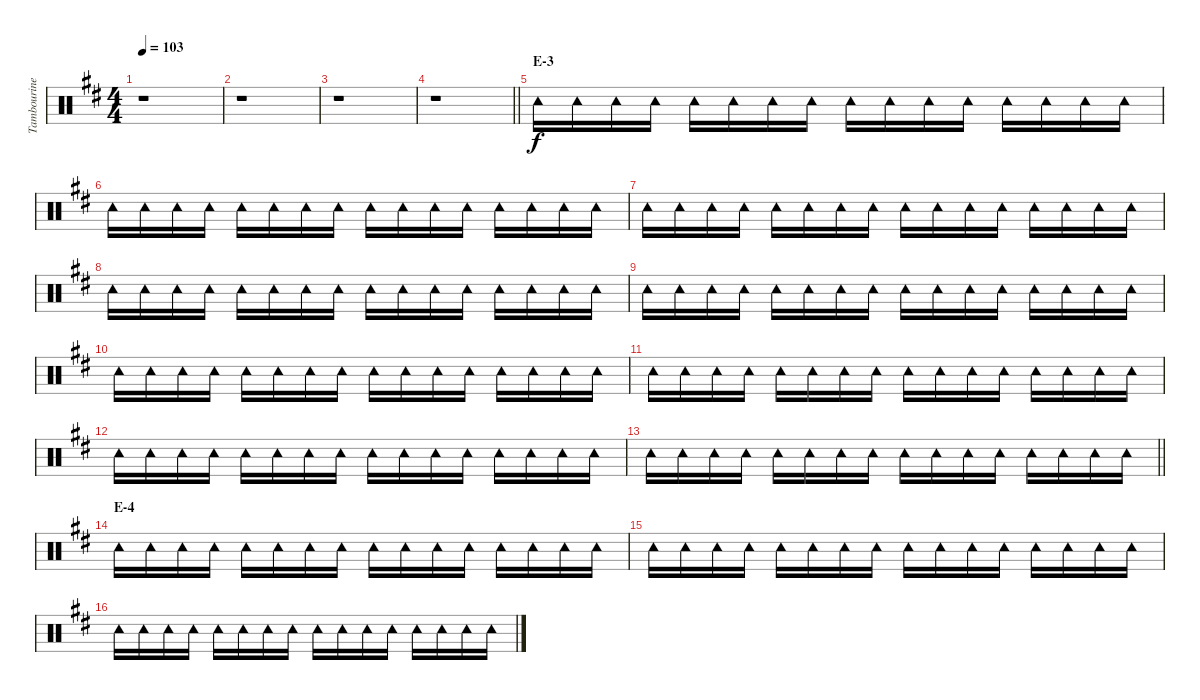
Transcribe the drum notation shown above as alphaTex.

\track ("Tambourine" "Tambourine") {instrument percussion}
\staff {score}
\articulation defaults
\ts (4 4)
\tempo 103
\clef neutral
\ks d
r.1{dy f} |
r.1 |
r.1 |
\barLineRight lightlight
r.1 |
\section ("" "E-3")
"Tambourine (hit)".16 "Tambourine (hit)".16 "Tambourine (hit)".16 "Tambourine (hit)".16 "Tambourine (hit)".16 "Tambourine (hit)".16 "Tambourine (hit)".16 "Tambourine (hit)".16 "Tambourine (hit)".16 "Tambourine (hit)".16 "Tambourine (hit)".16 "Tambourine (hit)".16 "Tambourine (hit)".16 "Tambourine (hit)".16 "Tambourine (hit)".16 "Tambourine (hit)".16 |
"Tambourine (hit)".16 "Tambourine (hit)".16 "Tambourine (hit)".16 "Tambourine (hit)".16 "Tambourine (hit)".16 "Tambourine (hit)".16 "Tambourine (hit)".16 "Tambourine (hit)".16 "Tambourine (hit)".16 "Tambourine (hit)".16 "Tambourine (hit)".16 "Tambourine (hit)".16 "Tambourine (hit)".16 "Tambourine (hit)".16 "Tambourine (hit)".16 "Tambourine (hit)".16 |
"Tambourine (hit)".16 "Tambourine (hit)".16 "Tambourine (hit)".16 "Tambourine (hit)".16 "Tambourine (hit)".16 "Tambourine (hit)".16 "Tambourine (hit)".16 "Tambourine (hit)".16 "Tambourine (hit)".16 "Tambourine (hit)".16 "Tambourine (hit)".16 "Tambourine (hit)".16 "Tambourine (hit)".16 "Tambourine (hit)".16 "Tambourine (hit)".16 "Tambourine (hit)".16 |
"Tambourine (hit)".16 "Tambourine (hit)".16 "Tambourine (hit)".16 "Tambourine (hit)".16 "Tambourine (hit)".16 "Tambourine (hit)".16 "Tambourine (hit)".16 "Tambourine (hit)".16 "Tambourine (hit)".16 "Tambourine (hit)".16 "Tambourine (hit)".16 "Tambourine (hit)".16 "Tambourine (hit)".16 "Tambourine (hit)".16 "Tambourine (hit)".16 "Tambourine (hit)".16 |
"Tambourine (hit)".16 "Tambourine (hit)".16 "Tambourine (hit)".16 "Tambourine (hit)".16 "Tambourine (hit)".16 "Tambourine (hit)".16 "Tambourine (hit)".16 "Tambourine (hit)".16 "Tambourine (hit)".16 "Tambourine (hit)".16 "Tambourine (hit)".16 "Tambourine (hit)".16 "Tambourine (hit)".16 "Tambourine (hit)".16 "Tambourine (hit)".16 "Tambourine (hit)".16 |
"Tambourine (hit)".16 "Tambourine (hit)".16 "Tambourine (hit)".16 "Tambourine (hit)".16 "Tambourine (hit)".16 "Tambourine (hit)".16 "Tambourine (hit)".16 "Tambourine (hit)".16 "Tambourine (hit)".16 "Tambourine (hit)".16 "Tambourine (hit)".16 "Tambourine (hit)".16 "Tambourine (hit)".16 "Tambourine (hit)".16 "Tambourine (hit)".16 "Tambourine (hit)".16 |
"Tambourine (hit)".16 "Tambourine (hit)".16 "Tambourine (hit)".16 "Tambourine (hit)".16 "Tambourine (hit)".16 "Tambourine (hit)".16 "Tambourine (hit)".16 "Tambourine (hit)".16 "Tambourine (hit)".16 "Tambourine (hit)".16 "Tambourine (hit)".16 "Tambourine (hit)".16 "Tambourine (hit)".16 "Tambourine (hit)".16 "Tambourine (hit)".16 "Tambourine (hit)".16 |
"Tambourine (hit)".16 "Tambourine (hit)".16 "Tambourine (hit)".16 "Tambourine (hit)".16 "Tambourine (hit)".16 "Tambourine (hit)".16 "Tambourine (hit)".16 "Tambourine (hit)".16 "Tambourine (hit)".16 "Tambourine (hit)".16 "Tambourine (hit)".16 "Tambourine (hit)".16 "Tambourine (hit)".16 "Tambourine (hit)".16 "Tambourine (hit)".16 "Tambourine (hit)".16 |
\barLineRight lightlight "Tambourine (hit)".16 "Tambourine (hit)".16 "Tambourine (hit)".16 "Tambourine (hit)".16 "Tambourine (hit)".16 "Tambourine (hit)".16 "Tambourine (hit)".16 "Tambourine (hit)".16 "Tambourine (hit)".16 "Tambourine (hit)".16 "Tambourine (hit)".16 "Tambourine (hit)".16 "Tambourine (hit)".16 "Tambourine (hit)".16 "Tambourine (hit)".16 "Tambourine (hit)".16
|
\section ("" "E-4")
"Tambourine (hit)".16 "Tambourine (hit)".16 "Tambourine (hit)".16 "Tambourine (hit)".16 "Tambourine (hit)".16 "Tambourine (hit)".16 "Tambourine (hit)".16 "Tambourine (hit)".16 "Tambourine (hit)".16 "Tambourine (hit)".16 "Tambourine (hit)".16 "Tambourine (hit)".16 "Tambourine (hit)".16 "Tambourine (hit)".16 "Tambourine (hit)".16 "Tambourine (hit)".16 |
"Tambourine (hit)".16 "Tambourine (hit)".16 "Tambourine (hit)".16 "Tambourine (hit)".16 "Tambourine (hit)".16 "Tambourine (hit)".16 "Tambourine (hit)".16 "Tambourine (hit)".16 "Tambourine (hit)".16 "Tambourine (hit)".16 "Tambourine (hit)".16 "Tambourine (hit)".16 "Tambourine (hit)".16 "Tambourine (hit)".16 "Tambourine (hit)".16 "Tambourine (hit)".16 |
"Tambourine (hit)".16 "Tambourine (hit)".16 "Tambourine (hit)".16 "Tambourine (hit)".16 "Tambourine (hit)".16 "Tambourine (hit)".16 "Tambourine (hit)".16 "Tambourine (hit)".16 "Tambourine (hit)".16 "Tambourine (hit)".16 "Tambourine (hit)".16 "Tambourine (hit)".16 "Tambourine (hit)".16 "Tambourine (hit)".16 "Tambourine (hit)".16 "Tambourine (hit)".16
